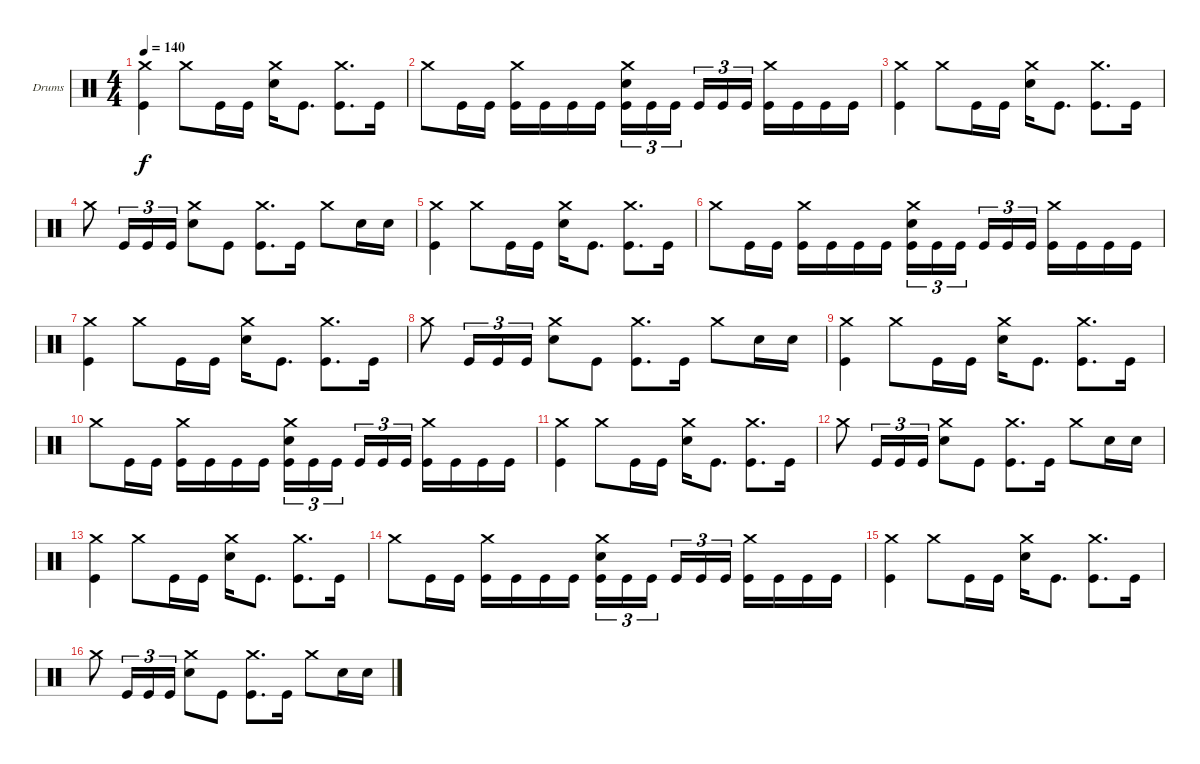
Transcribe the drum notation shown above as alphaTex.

\defaultSystemsLayout 4
\bracketExtendMode groupsimilarinstruments
\firstSystemTrackNameOrientation horizontal
\otherSystemsTrackNameOrientation horizontal
\track ("Drumkit" "Drums") {instrument percussion}
\staff {score}
\articulation defaults
\ts (4 4)
\tempo 140
\clef neutral
\ks c
("Crash medium (hit)" "Kick (hit)").4{dy f} "Crash medium (hit)".8 "Kick (hit)".16 "Kick (hit)".16 ("Crash medium (hit)" "Snare (hit) 2").16 "Kick (hit)".8{d} ("Crash medium (hit)" "Kick (hit)").8{d} "Kick (hit)".16 |
"Crash medium (hit)".8 "Kick (hit)".16 "Kick (hit)".16 ("Crash medium (hit)" "Kick (hit)").16 "Kick (hit)".16 "Kick (hit)".16 "Kick (hit)".16 ("Crash medium (hit)" "Snare (hit) 2" "Kick (hit)").16{tu (3 2)} "Kick (hit)".16{tu (3 2)} "Kick (hit)".16{tu (3 2)} "Kick (hit)".16{tu (3 2)} "Kick (hit)".16{tu (3 2)} "Kick (hit)".16{tu (3 2)} ("Crash medium (hit)" "Kick (hit)").16 "Kick (hit)".16 "Kick (hit)".16 "Kick (hit)".16 |
("Crash medium (hit)" "Kick (hit)").4 "Crash medium (hit)".8 "Kick (hit)".16 "Kick (hit)".16 ("Crash medium (hit)" "Snare (hit) 2").16 "Kick (hit)".8{d} ("Crash medium (hit)" "Kick (hit)").8{d} "Kick (hit)".16 |
"Crash medium (hit)".8 "Kick (hit)".16{tu (3 2)} "Kick (hit)".16{tu (3 2)} "Kick (hit)".16{tu (3 2)} ("Crash medium (hit)" "Snare (hit) 2").8 "Kick (hit)".8 ("Crash medium (hit)" "Kick (hit)").8{d} "Kick (hit)".16 "Crash medium (hit)".8 "Snare (hit) 2".16 "Snare (hit) 2".16 |
("Crash medium (hit)" "Kick (hit)").4 "Crash medium (hit)".8 "Kick (hit)".16 "Kick (hit)".16 ("Crash medium (hit)" "Snare (hit) 2").16 "Kick (hit)".8{d} ("Crash medium (hit)" "Kick (hit)").8{d} "Kick (hit)".16 |
"Crash medium (hit)".8 "Kick (hit)".16 "Kick (hit)".16 ("Crash medium (hit)" "Kick (hit)").16 "Kick (hit)".16 "Kick (hit)".16 "Kick (hit)".16 ("Crash medium (hit)" "Snare (hit) 2" "Kick (hit)").16{tu (3 2)} "Kick (hit)".16{tu (3 2)} "Kick (hit)".16{tu (3 2)} "Kick (hit)".16{tu (3 2)} "Kick (hit)".16{tu (3 2)} "Kick (hit)".16{tu (3 2)} ("Crash medium (hit)" "Kick (hit)").16 "Kick (hit)".16 "Kick (hit)".16 "Kick (hit)".16 |
("Crash medium (hit)" "Kick (hit)").4 "Crash medium (hit)".8 "Kick (hit)".16 "Kick (hit)".16 ("Crash medium (hit)" "Snare (hit) 2").16 "Kick (hit)".8{d} ("Crash medium (hit)" "Kick (hit)").8{d} "Kick (hit)".16 |
"Crash medium (hit)".8 "Kick (hit)".16{tu (3 2)} "Kick (hit)".16{tu (3 2)} "Kick (hit)".16{tu (3 2)} ("Crash medium (hit)" "Snare (hit) 2").8 "Kick (hit)".8 ("Crash medium (hit)" "Kick (hit)").8{d} "Kick (hit)".16 "Crash medium (hit)".8 "Snare (hit) 2".16 "Snare (hit) 2".16 |
("Crash medium (hit)" "Kick (hit)").4 "Crash medium (hit)".8 "Kick (hit)".16 "Kick (hit)".16 ("Crash medium (hit)" "Snare (hit) 2").16 "Kick (hit)".8{d} ("Crash medium (hit)" "Kick (hit)").8{d} "Kick (hit)".16 |
"Crash medium (hit)".8 "Kick (hit)".16 "Kick (hit)".16 ("Crash medium (hit)" "Kick (hit)").16 "Kick (hit)".16 "Kick (hit)".16 "Kick (hit)".16 ("Crash medium (hit)" "Snare (hit) 2" "Kick (hit)").16{tu (3 2)} "Kick (hit)".16{tu (3 2)} "Kick (hit)".16{tu (3 2)} "Kick (hit)".16{tu (3 2)} "Kick (hit)".16{tu (3 2)} "Kick (hit)".16{tu (3 2)} ("Crash medium (hit)" "Kick (hit)").16 "Kick (hit)".16 "Kick (hit)".16 "Kick (hit)".16 |
("Crash medium (hit)" "Kick (hit)").4 "Crash medium (hit)".8 "Kick (hit)".16 "Kick (hit)".16 ("Crash medium (hit)" "Snare (hit) 2").16 "Kick (hit)".8{d} ("Crash medium (hit)" "Kick (hit)").8{d} "Kick (hit)".16 |
"Crash medium (hit)".8 "Kick (hit)".16{tu (3 2)} "Kick (hit)".16{tu (3 2)} "Kick (hit)".16{tu (3 2)} ("Crash medium (hit)" "Snare (hit) 2").8 "Kick (hit)".8 ("Crash medium (hit)" "Kick (hit)").8{d} "Kick (hit)".16 "Crash medium (hit)".8 "Snare (hit) 2".16 "Snare (hit) 2".16 |
("Crash medium (hit)" "Kick (hit)").4 "Crash medium (hit)".8 "Kick (hit)".16 "Kick (hit)".16 ("Crash medium (hit)" "Snare (hit) 2").16 "Kick (hit)".8{d} ("Crash medium (hit)" "Kick (hit)").8{d} "Kick (hit)".16 |
"Crash medium (hit)".8 "Kick (hit)".16 "Kick (hit)".16 ("Crash medium (hit)" "Kick (hit)").16 "Kick (hit)".16 "Kick (hit)".16 "Kick (hit)".16 ("Crash medium (hit)" "Snare (hit) 2" "Kick (hit)").16{tu (3 2)} "Kick (hit)".16{tu (3 2)} "Kick (hit)".16{tu (3 2)} "Kick (hit)".16{tu (3 2)} "Kick (hit)".16{tu (3 2)} "Kick (hit)".16{tu (3 2)} ("Crash medium (hit)" "Kick (hit)").16 "Kick (hit)".16 "Kick (hit)".16 "Kick (hit)".16 |
("Crash medium (hit)" "Kick (hit)").4 "Crash medium (hit)".8 "Kick (hit)".16 "Kick (hit)".16 ("Crash medium (hit)" "Snare (hit) 2").16 "Kick (hit)".8{d} ("Crash medium (hit)" "Kick (hit)").8{d} "Kick (hit)".16 |
"Crash medium (hit)".8 "Kick (hit)".16{tu (3 2)} "Kick (hit)".16{tu (3 2)} "Kick (hit)".16{tu (3 2)} ("Crash medium (hit)" "Snare (hit) 2").8 "Kick (hit)".8 ("Crash medium (hit)" "Kick (hit)").8{d} "Kick (hit)".16 "Crash medium (hit)".8 "Snare (hit) 2".16 "Snare (hit) 2".16
